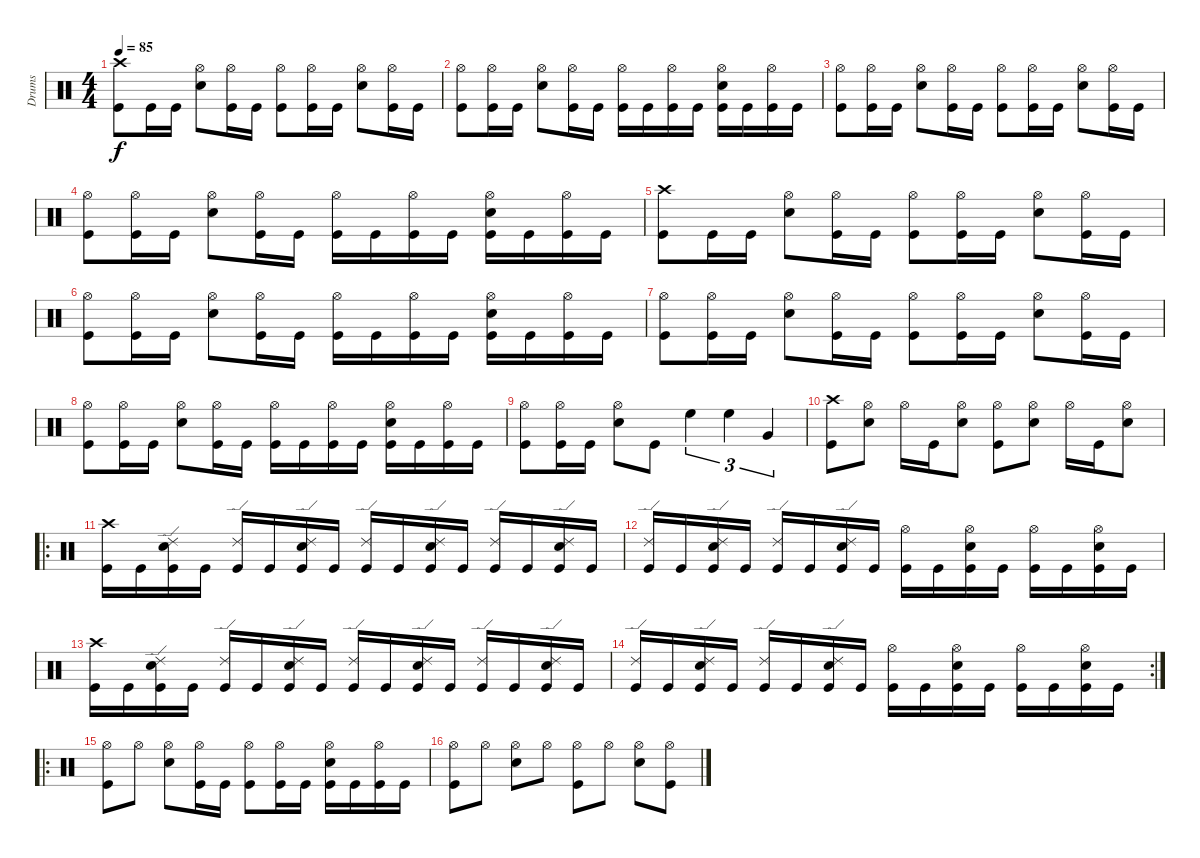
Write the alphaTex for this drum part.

\track ("Drums" "Drums") {instrument percussion}
\staff {score}
\articulation defaults
\ts (4 4)
\tempo 85
\clef neutral
\ks c
("Crash high (hit)" "Kick (hit)").8{dy f} "Kick (hit)".16 "Kick (hit)".16 ("Hi-Hat (open)" "Snare (hit) 2").8 ("Hi-Hat (open)" "Kick (hit)").16 "Kick (hit)".16 ("Hi-Hat (open)" "Kick (hit)").8 ("Hi-Hat (open)" "Kick (hit)").16 "Kick (hit)".16 ("Hi-Hat (open)" "Snare (hit) 2").8 ("Hi-Hat (open)" "Kick (hit)").16 "Kick (hit)".16 |
("Hi-Hat (open)" "Kick (hit)").8 ("Hi-Hat (open)" "Kick (hit)").16 "Kick (hit)".16 ("Hi-Hat (open)" "Snare (hit) 2").8 ("Hi-Hat (open)" "Kick (hit)").16 "Kick (hit)".16 ("Hi-Hat (open)" "Kick (hit)").16 "Kick (hit)".16 ("Hi-Hat (open)" "Kick (hit)").16 "Kick (hit)".16 ("Hi-Hat (open)" "Snare (hit) 2" "Kick (hit)").16 "Kick (hit)".16 ("Hi-Hat (open)" "Kick (hit)").16 "Kick (hit)".16 |
("Hi-Hat (open)" "Kick (hit)").8 ("Hi-Hat (open)" "Kick (hit)").16 "Kick (hit)".16 ("Hi-Hat (open)" "Snare (hit) 2").8 ("Hi-Hat (open)" "Kick (hit)").16 "Kick (hit)".16 ("Hi-Hat (open)" "Kick (hit)").8 ("Hi-Hat (open)" "Kick (hit)").16 "Kick (hit)".16 ("Hi-Hat (open)" "Snare (hit) 2").8 ("Hi-Hat (open)" "Kick (hit)").16 "Kick (hit)".16 |
("Hi-Hat (open)" "Kick (hit)").8 ("Hi-Hat (open)" "Kick (hit)").16 "Kick (hit)".16 ("Hi-Hat (open)" "Snare (hit) 2").8 ("Hi-Hat (open)" "Kick (hit)").16 "Kick (hit)".16 ("Hi-Hat (open)" "Kick (hit)").16 "Kick (hit)".16 ("Hi-Hat (open)" "Kick (hit)").16 "Kick (hit)".16 ("Hi-Hat (open)" "Snare (hit) 2" "Kick (hit)").16 "Kick (hit)".16 ("Hi-Hat (open)" "Kick (hit)").16 "Kick (hit)".16 |
("Crash high (hit)" "Kick (hit)").8 "Kick (hit)".16 "Kick (hit)".16 ("Hi-Hat (open)" "Snare (hit) 2").8 ("Hi-Hat (open)" "Kick (hit)").16 "Kick (hit)".16 ("Hi-Hat (open)" "Kick (hit)").8 ("Hi-Hat (open)" "Kick (hit)").16 "Kick (hit)".16 ("Hi-Hat (open)" "Snare (hit) 2").8 ("Hi-Hat (open)" "Kick (hit)").16 "Kick (hit)".16 |
("Hi-Hat (open)" "Kick (hit)").8 ("Hi-Hat (open)" "Kick (hit)").16 "Kick (hit)".16 ("Hi-Hat (open)" "Snare (hit) 2").8 ("Hi-Hat (open)" "Kick (hit)").16 "Kick (hit)".16 ("Hi-Hat (open)" "Kick (hit)").16 "Kick (hit)".16 ("Hi-Hat (open)" "Kick (hit)").16 "Kick (hit)".16 ("Hi-Hat (open)" "Snare (hit) 2" "Kick (hit)").16 "Kick (hit)".16 ("Hi-Hat (open)" "Kick (hit)").16 "Kick (hit)".16 |
("Hi-Hat (open)" "Kick (hit)").8 ("Hi-Hat (open)" "Kick (hit)").16 "Kick (hit)".16 ("Hi-Hat (open)" "Snare (hit) 2").8 ("Hi-Hat (open)" "Kick (hit)").16 "Kick (hit)".16 ("Hi-Hat (open)" "Kick (hit)").8 ("Hi-Hat (open)" "Kick (hit)").16 "Kick (hit)".16 ("Hi-Hat (open)" "Snare (hit) 2").8 ("Hi-Hat (open)" "Kick (hit)").16 "Kick (hit)".16 |
("Hi-Hat (open)" "Kick (hit)").8 ("Hi-Hat (open)" "Kick (hit)").16 "Kick (hit)".16 ("Hi-Hat (open)" "Snare (hit) 2").8 ("Hi-Hat (open)" "Kick (hit)").16 "Kick (hit)".16 ("Hi-Hat (open)" "Kick (hit)").16 "Kick (hit)".16 ("Hi-Hat (open)" "Kick (hit)").16 "Kick (hit)".16 ("Hi-Hat (open)" "Snare (hit) 2" "Kick (hit)").16 "Kick (hit)".16 ("Hi-Hat (open)" "Kick (hit)").16 "Kick (hit)".16 |
("Hi-Hat (open)" "Kick (hit)").8 ("Hi-Hat (open)" "Kick (hit)").16 "Kick (hit)".16 ("Hi-Hat (open)" "Snare (hit) 2").8 "Kick (hit)".8 "High Floor Tom (hit)".4{tu (3 2)} "High Floor Tom (hit)".4{tu (3 2)} "Very Low Tom (hit)".4{tu (3 2)} |
("Crash high (hit)" "Kick (hit)").8 ("Hi-Hat (open)" "Snare (hit) 2").8 "Hi-Hat (open)".16 "Kick (hit)".16 ("Hi-Hat (open)" "Snare (hit) 2").8 ("Hi-Hat (open)" "Kick (hit)").8 ("Hi-Hat (open)" "Snare (hit) 2").8 "Hi-Hat (open)".16 "Kick (hit)".16 ("Hi-Hat (open)" "Snare (hit) 2").8 |
\ro
("Crash high (hit)" "Kick (hit)").16 "Kick (hit)".16 ("Ride (edge) 2" "Snare (hit) 2" "Kick (hit)").16 "Kick (hit)".16 ("Ride (edge) 2" "Kick (hit)").16 "Kick (hit)".16 ("Ride (edge) 2" "Snare (hit) 2" "Kick (hit)").16 "Kick (hit)".16 ("Ride (edge) 2" "Kick (hit)").16 "Kick (hit)".16 ("Ride (edge) 2" "Snare (hit) 2" "Kick (hit)").16 "Kick (hit)".16 ("Ride (edge) 2" "Kick (hit)").16 "Kick (hit)".16 ("Ride (edge) 2" "Snare (hit) 2" "Kick (hit)").16 "Kick (hit)".16 |
("Ride (edge) 2" "Kick (hit)").16 "Kick (hit)".16 ("Ride (edge) 2" "Snare (hit) 2" "Kick (hit)").16 "Kick (hit)".16 ("Ride (edge) 2" "Kick (hit)").16 "Kick (hit)".16 ("Ride (edge) 2" "Snare (hit) 2" "Kick (hit)").16 "Kick (hit)".16 ("Hi-Hat (open)" "Kick (hit)").16 "Kick (hit)".16 ("Hi-Hat (open)" "Snare (hit) 2" "Kick (hit)").16 "Kick (hit)".16 ("Hi-Hat (open)" "Kick (hit)").16 "Kick (hit)".16 ("Hi-Hat (open)" "Snare (hit) 2" "Kick (hit)").16 "Kick (hit)".16 |
("Crash high (hit)" "Kick (hit)").16 "Kick (hit)".16 ("Ride (edge) 2" "Snare (hit) 2" "Kick (hit)").16 "Kick (hit)".16 ("Ride (edge) 2" "Kick (hit)").16 "Kick (hit)".16 ("Ride (edge) 2" "Snare (hit) 2" "Kick (hit)").16 "Kick (hit)".16 ("Ride (edge) 2" "Kick (hit)").16 "Kick (hit)".16 ("Ride (edge) 2" "Snare (hit) 2" "Kick (hit)").16 "Kick (hit)".16 ("Ride (edge) 2" "Kick (hit)").16 "Kick (hit)".16 ("Ride (edge) 2" "Snare (hit) 2" "Kick (hit)").16 "Kick (hit)".16 |
\rc 2
("Ride (edge) 2" "Kick (hit)").16 "Kick (hit)".16 ("Ride (edge) 2" "Snare (hit) 2" "Kick (hit)").16 "Kick (hit)".16 ("Ride (edge) 2" "Kick (hit)").16 "Kick (hit)".16 ("Ride (edge) 2" "Snare (hit) 2" "Kick (hit)").16 "Kick (hit)".16 ("Hi-Hat (open)" "Kick (hit)").16 "Kick (hit)".16 ("Hi-Hat (open)" "Snare (hit) 2" "Kick (hit)").16 "Kick (hit)".16 ("Hi-Hat (open)" "Kick (hit)").16 "Kick (hit)".16 ("Hi-Hat (open)" "Snare (hit) 2" "Kick (hit)").16 "Kick (hit)".16 |
\ro
("Hi-Hat (open)" "Kick (hit)").8 "Hi-Hat (open)".8 ("Hi-Hat (open)" "Snare (hit) 2").8 ("Hi-Hat (open)" "Kick (hit)").16 "Kick (hit)".16 ("Hi-Hat (open)" "Kick (hit)").8 ("Hi-Hat (open)" "Kick (hit)").16 "Kick (hit)".16 ("Hi-Hat (open)" "Snare (hit) 2" "Kick (hit)").16 "Kick (hit)".16 ("Hi-Hat (open)" "Kick (hit)").16 "Kick (hit)".16 |
("Hi-Hat (open)" "Kick (hit)").8 "Hi-Hat (open)".8 ("Hi-Hat (open)" "Snare (hit) 2").8 "Hi-Hat (open)".8 ("Hi-Hat (open)" "Kick (hit)").8 "Hi-Hat (open)".8 ("Hi-Hat (open)" "Snare (hit) 2").8 ("Hi-Hat (open)" "Kick (hit)").8
